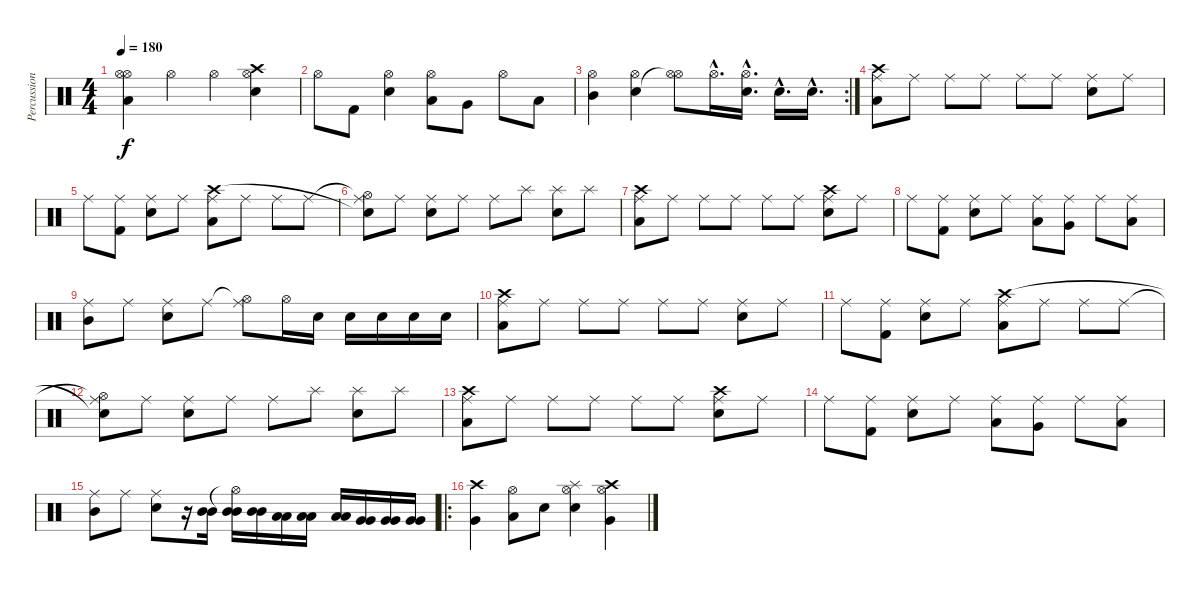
\track ("Percussions" "Percussion") {instrument percussion}
\staff {score}
\articulation defaults
\ts (4 4)
\tempo 180
\clef neutral
\ks c
("Low Tom (hit)" "Hi-Hat (open)" "Hi-Hat (open)").4{dy f} "Hi-Hat (open)".4 "Hi-Hat (open)".4 ("Snare (hit) 2" "Crash high (hit)" "Hi-Hat (open)").4 |
"Hi-Hat (open)".8 "Kick (hit) 2".8 ("Snare (hit) 2" "Hi-Hat (open)").4 ("Low Tom (hit)" "Hi-Hat (open)").8 "Very Low Tom (hit)".8 "Hi-Hat (open)".8 "Low Tom (hit)".8 |
\rc 2
("Mid Tom (hit)" "Hi-Hat (open)").4 ("Snare (hit) 2" "Hi-Hat (open)").4 ("Hi-Hat (open)"{t} "Hi-Hat (open)").8 "Hi-Hat (open)"{hac}.16{d} ("Snare (hit) 2"{hac} "Hi-Hat (open)"{hac}).16{d} "Snare (hit) 2"{hac}.16{d} "Snare (hit) 2"{hac}.16{d} |
("Low Tom (hit)" "Crash high (hit)" "Ride (middle)").8 "Ride (middle)".8 "Ride (middle)".8 "Ride (middle)".8 "Ride (middle)".8 "Ride (middle)".8 ("Snare (hit) 2" "Ride (middle)").8 "Ride (middle)".8 |
"Ride (middle)".8 ("Kick (hit) 2" "Ride (middle)").8 ("Snare (hit) 2" "Ride (middle)").8 "Ride (middle)".8 ("Low Tom (hit)" "Crash high (hit)" "Ride (middle)").8 "Ride (middle)".8 "Ride (middle)".8 "Ride (middle)".8 |
("Hi-Hat (open)"{t} "Snare (hit)"{t} "Ride (middle)").8 "Ride (middle)".8 ("Snare (hit) 2" "Ride (middle)").8 "Ride (middle)".8 "Ride (middle)".8 "Splash (hit)".8 ("Snare (hit) 2" "Splash (hit)").8 "Splash (hit)".8 |
("Low Tom (hit)" "Crash high (hit)" "Ride (middle)").8 "Ride (middle)".8 "Ride (middle)".8 "Ride (middle)".8 "Ride (middle)".8 "Ride (middle)".8 ("Snare (hit) 2" "Crash high (hit)" "Ride (middle)").8 "Ride (middle)".8 |
"Ride (middle)".8 ("Kick (hit) 2" "Ride (middle)").8 ("Snare (hit) 2" "Ride (middle)").8 "Ride (middle)".8 ("Low Tom (hit)" "Ride (middle)").8 ("Very Low Tom (hit)" "Ride (middle)").8 "Ride (middle)".8 ("Low Tom (hit)" "Ride (middle)").8 |
("Mid Tom (hit)" "Ride (middle)").8 "Ride (middle)".8 ("Snare (hit) 2" "Ride (middle)").8 "Ride (middle)".8 ("Hi-Hat (open)"{t} "Ride (middle)").8 "Hi-Hat (open)".16 "Snare (hit) 2".16 "Snare (hit) 2".16 "Snare (hit) 2".16 "Snare (hit) 2".16 "Snare (hit) 2".16 |
("Low Tom (hit)" "Crash high (hit)" "Ride (middle)").8 "Ride (middle)".8 "Ride (middle)".8 "Ride (middle)".8 "Ride (middle)".8 "Ride (middle)".8 ("Snare (hit) 2" "Ride (middle)").8 "Ride (middle)".8 |
"Ride (middle)".8 ("Kick (hit) 2" "Ride (middle)").8 ("Snare (hit) 2" "Ride (middle)").8 "Ride (middle)".8 ("Low Tom (hit)" "Crash high (hit)" "Ride (middle)").8 "Ride (middle)".8 "Ride (middle)".8 "Ride (middle)".8 |
("Hi-Hat (open)"{t} "Snare (hit)"{t} "Ride (middle)").8 "Ride (middle)".8 ("Snare (hit) 2" "Ride (middle)").8 "Ride (middle)".8 "Ride (middle)".8 "Splash (hit)".8 ("Snare (hit) 2" "Splash (hit)").8 "Splash (hit)".8 |
("Low Tom (hit)" "Crash high (hit)" "Ride (middle)").8 "Ride (middle)".8 "Ride (middle)".8 "Ride (middle)".8 "Ride (middle)".8 "Ride (middle)".8 ("Snare (hit) 2" "Crash high (hit)" "Ride (middle)").8 "Ride (middle)".8 |
"Ride (middle)".8 ("Kick (hit) 2" "Ride (middle)").8 ("Snare (hit) 2" "Ride (middle)").8 "Ride (middle)".8 ("Low Tom (hit)" "Ride (middle)").8 ("Very Low Tom (hit)" "Ride (middle)").8 "Ride (middle)".8 ("Low Tom (hit)" "Ride (middle)").8 |
("Mid Tom (hit)" "Ride (middle)").8 "Ride (middle)".8 ("Snare (hit) 2" "Ride (middle)").8 r.16 ("Mid Tom (hit)" "Mid Tom (hit)").16 ("Hi-Hat (open)"{t} "Mid Tom (hit)" "Mid Tom (hit)").16 ("Mid Tom (hit)" "Mid Tom (hit)").16 ("Low Tom (hit)" "Low Tom (hit)").16 ("Low Tom (hit)" "Low Tom (hit)").16 ("Low Tom (hit)" "Low Tom (hit)").16 ("Very Low Tom (hit)" "Very Low Tom (hit)").16 ("Very Low Tom (hit)" "Very Low Tom (hit)").16 ("Very Low Tom (hit)" "Very Low Tom (hit)").16 |
\ro
("Very Low Tom (hit)" "Crash high (hit)").4 ("Low Tom (hit)" "Hi-Hat (open)").8 "Electric Snare (hit)".8 ("Snare (hit) 2" "Splash (hit)" "Hi-Hat (open)").4 ("Very Low Tom (hit)" "Crash high (hit)" "Hi-Hat (open)").4
